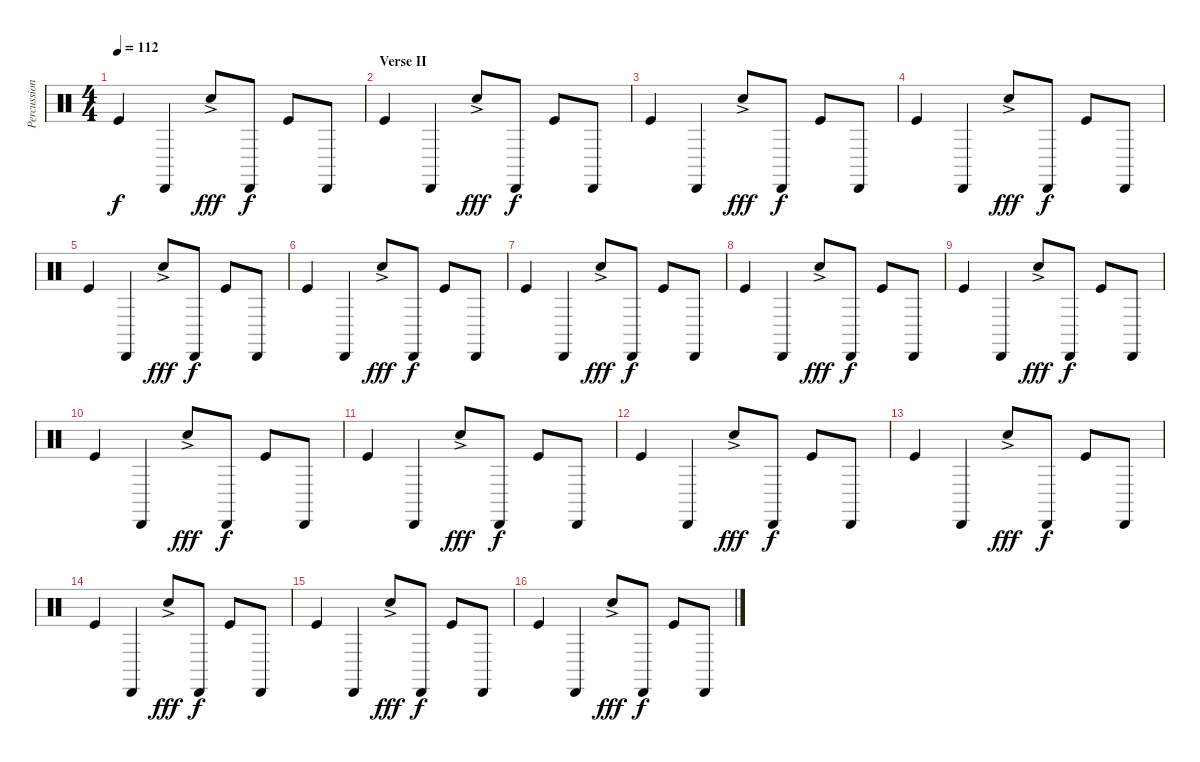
\track ("Percussion" "Percussion") {instrument percussion}
\staff {score}
\articulation defaults
\ts (4 4)
\tempo 112
\clef neutral
\ks c "Kick (hit)".4{dy f} "Cabasa (hit)".4 "Snare (hit) 2"{ac}.8{dy fff} "Cabasa (hit)".8{dy f} "Kick (hit)".8 "Cabasa (hit)".8
|
\section ("" "Verse II")
"Kick (hit)".4 "Cabasa (hit)".4 "Snare (hit) 2"{ac}.8{dy fff} "Cabasa (hit)".8{dy f} "Kick (hit)".8 "Cabasa (hit)".8 |
"Kick (hit)".4 "Cabasa (hit)".4 "Snare (hit) 2"{ac}.8{dy fff} "Cabasa (hit)".8{dy f} "Kick (hit)".8 "Cabasa (hit)".8 |
"Kick (hit)".4 "Cabasa (hit)".4 "Snare (hit) 2"{ac}.8{dy fff} "Cabasa (hit)".8{dy f} "Kick (hit)".8 "Cabasa (hit)".8 |
"Kick (hit)".4 "Cabasa (hit)".4 "Snare (hit) 2"{ac}.8{dy fff} "Cabasa (hit)".8{dy f} "Kick (hit)".8 "Cabasa (hit)".8 |
"Kick (hit)".4 "Cabasa (hit)".4 "Snare (hit) 2"{ac}.8{dy fff} "Cabasa (hit)".8{dy f} "Kick (hit)".8 "Cabasa (hit)".8 |
"Kick (hit)".4 "Cabasa (hit)".4 "Snare (hit) 2"{ac}.8{dy fff} "Cabasa (hit)".8{dy f} "Kick (hit)".8 "Cabasa (hit)".8 |
"Kick (hit)".4 "Cabasa (hit)".4 "Snare (hit) 2"{ac}.8{dy fff} "Cabasa (hit)".8{dy f} "Kick (hit)".8 "Cabasa (hit)".8 |
"Kick (hit)".4 "Cabasa (hit)".4 "Snare (hit) 2"{ac}.8{dy fff} "Cabasa (hit)".8{dy f} "Kick (hit)".8 "Cabasa (hit)".8 |
"Kick (hit)".4 "Cabasa (hit)".4 "Snare (hit) 2"{ac}.8{dy fff} "Cabasa (hit)".8{dy f} "Kick (hit)".8 "Cabasa (hit)".8 |
"Kick (hit)".4 "Cabasa (hit)".4 "Snare (hit) 2"{ac}.8{dy fff} "Cabasa (hit)".8{dy f} "Kick (hit)".8 "Cabasa (hit)".8 |
"Kick (hit)".4 "Cabasa (hit)".4 "Snare (hit) 2"{ac}.8{dy fff} "Cabasa (hit)".8{dy f} "Kick (hit)".8 "Cabasa (hit)".8 |
"Kick (hit)".4 "Cabasa (hit)".4 "Snare (hit) 2"{ac}.8{dy fff} "Cabasa (hit)".8{dy f} "Kick (hit)".8 "Cabasa (hit)".8 |
"Kick (hit)".4 "Cabasa (hit)".4 "Snare (hit) 2"{ac}.8{dy fff} "Cabasa (hit)".8{dy f} "Kick (hit)".8 "Cabasa (hit)".8 |
"Kick (hit)".4 "Cabasa (hit)".4 "Snare (hit) 2"{ac}.8{dy fff} "Cabasa (hit)".8{dy f} "Kick (hit)".8 "Cabasa (hit)".8 |
"Kick (hit)".4 "Cabasa (hit)".4 "Snare (hit) 2"{ac}.8{dy fff} "Cabasa (hit)".8{dy f} "Kick (hit)".8 "Cabasa (hit)".8
